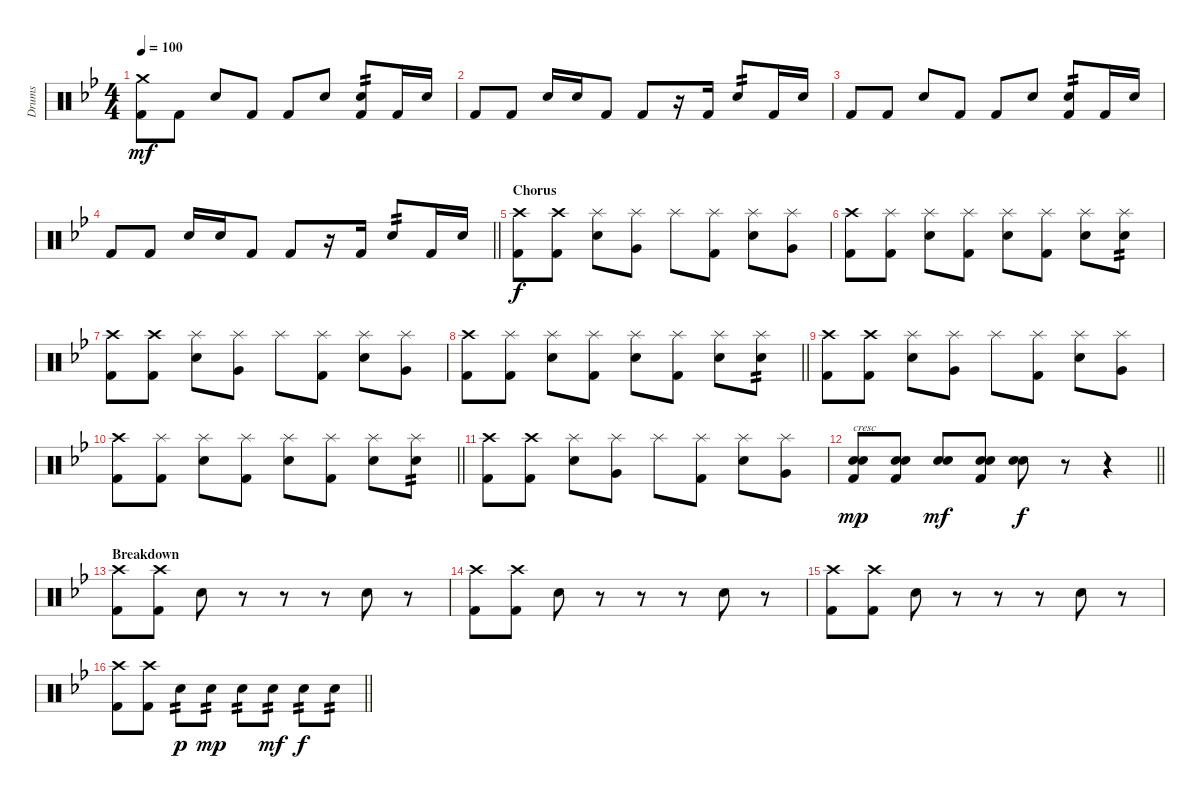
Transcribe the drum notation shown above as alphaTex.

\track ("Drums" "Drums") {instrument percussion}
\staff {score}
\articulation defaults
\ts (4 4)
\section ("" "")
\tempo 100
\clef neutral
\ks gminor
("Crash medium (hit)" "Kick (hit) 2").8{dy mf} "Kick (hit) 2".8 "Snare (hit) 2".8 "Kick (hit) 2".8 "Kick (hit) 2".8 "Snare (hit) 2".8 ("Snare (hit) 2" "Kick (hit) 2").8{tp 2} "Kick (hit) 2".16 "Snare (hit) 2".16 |
"Kick (hit) 2".8 "Kick (hit) 2".8 "Snare (hit) 2".16 "Snare (hit) 2".16 "Kick (hit) 2".8 "Kick (hit) 2".8 r.16 "Kick (hit) 2".16 "Snare (hit) 2".8{tp 2} "Kick (hit) 2".16 "Snare (hit) 2".16 |
"Kick (hit) 2".8 "Kick (hit) 2".8 "Snare (hit) 2".8 "Kick (hit) 2".8 "Kick (hit) 2".8 "Snare (hit) 2".8 ("Snare (hit) 2" "Kick (hit) 2").8{tp 2} "Kick (hit) 2".16 "Snare (hit) 2".16 |
\barLineRight lightlight "Kick (hit) 2".8 "Kick (hit) 2".8 "Snare (hit) 2".16 "Snare (hit) 2".16 "Kick (hit) 2".8 "Kick (hit) 2".8
r.16 "Kick (hit) 2".16 "Snare (hit) 2".8{tp 2} "Kick (hit) 2".16 "Snare (hit) 2".16 |
\section ("" "Chorus")
("Crash high (hit)" "Kick (hit) 2").8{dy f} ("Crash high (hit)" "Kick (hit) 2").8 ("Splash (hit)" "Snare (hit) 2").8 ("Splash (hit)" "Very Low Tom (hit)").8 "Splash (hit)".8 ("Splash (hit)" "Kick (hit) 2").8 ("Splash (hit)" "Snare (hit) 2").8 ("Splash (hit)" "Very Low Tom (hit)").8 |
("Crash high (hit)" "Kick (hit) 2").8 ("Splash (hit)" "Kick (hit) 2").8 ("Splash (hit)" "Snare (hit) 2").8 ("Splash (hit)" "Kick (hit) 2").8 ("Splash (hit)" "Snare (hit) 2").8 ("Splash (hit)" "Kick (hit) 2").8 ("Splash (hit)" "Snare (hit) 2").8 ("Splash (hit)" "Snare (hit) 2").8{tp 2} |
("Crash high (hit)" "Kick (hit) 2").8 ("Crash high (hit)" "Kick (hit) 2").8 ("Splash (hit)" "Snare (hit) 2").8 ("Splash (hit)" "Very Low Tom (hit)").8 "Splash (hit)".8 ("Splash (hit)" "Kick (hit) 2").8 ("Splash (hit)" "Snare (hit) 2").8 ("Splash (hit)" "Very Low Tom (hit)").8 |
\barLineRight lightlight
("Crash high (hit)" "Kick (hit) 2").8 ("Splash (hit)" "Kick (hit) 2").8 ("Splash (hit)" "Snare (hit) 2").8 ("Splash (hit)" "Kick (hit) 2").8 ("Splash (hit)" "Snare (hit) 2").8 ("Splash (hit)" "Kick (hit) 2").8 ("Splash (hit)" "Snare (hit) 2").8 ("Splash (hit)" "Snare (hit) 2").8{tp 2} |
\section ("" "")
("Crash high (hit)" "Kick (hit) 2").8 ("Crash high (hit)" "Kick (hit) 2").8 ("Splash (hit)" "Snare (hit) 2").8 ("Splash (hit)" "Very Low Tom (hit)").8 "Splash (hit)".8 ("Splash (hit)" "Kick (hit) 2").8 ("Splash (hit)" "Snare (hit) 2").8 ("Splash (hit)" "Very Low Tom (hit)").8 |
\barLineRight lightlight
("Crash high (hit)" "Kick (hit) 2").8 ("Splash (hit)" "Kick (hit) 2").8 ("Splash (hit)" "Snare (hit) 2").8 ("Splash (hit)" "Kick (hit) 2").8 ("Splash (hit)" "Snare (hit) 2").8 ("Splash (hit)" "Kick (hit) 2").8 ("Splash (hit)" "Snare (hit) 2").8 ("Splash (hit)" "Snare (hit) 2").8{tp 2} |
("Crash high (hit)" "Kick (hit) 2").8 ("Crash high (hit)" "Kick (hit) 2").8 ("Splash (hit)" "Snare (hit) 2").8 ("Splash (hit)" "Very Low Tom (hit)").8 "Splash (hit)".8 ("Splash (hit)" "Kick (hit) 2").8 ("Splash (hit)" "Snare (hit) 2").8 ("Splash (hit)" "Very Low Tom (hit)").8 |
\barLineRight lightlight
("Electric Snare (hit)" "Snare (hit) 2" "Kick (hit) 2").8{txt "cresc" dy mp} ("Electric Snare (hit)" "Snare (hit) 2" "Kick (hit) 2").8 ("Electric Snare (hit)" "Snare (hit) 2").8{dy mf} ("Electric Snare (hit)" "Snare (hit) 2" "Kick (hit) 2").8 ("Electric Snare (hit)" "Snare (hit) 2").8{dy f} r.8 r.4 |
\section ("" "Breakdown")
("Crash high (hit)" "Kick (hit) 2").8 ("Crash high (hit)" "Kick (hit) 2").8 "Snare (hit) 2".8 r.8 r.8 r.8 "Snare (hit) 2".8 r.8 |
("Crash high (hit)" "Kick (hit) 2").8 ("Crash high (hit)" "Kick (hit) 2").8 "Snare (hit) 2".8 r.8 r.8 r.8 "Snare (hit) 2".8 r.8 |
("Crash high (hit)" "Kick (hit) 2").8 ("Crash high (hit)" "Kick (hit) 2").8 "Snare (hit) 2".8 r.8 r.8 r.8 "Snare (hit) 2".8 r.8 |
\barLineRight lightlight
("Crash high (hit)" "Kick (hit) 2").8 ("Crash high (hit)" "Kick (hit) 2").8 "Snare (hit) 2".8{tp 2 dy p} "Snare (hit) 2".8{tp 2 dy mp} "Snare (hit) 2".8{tp 2} "Snare (hit) 2".8{tp 2 dy mf} "Snare (hit) 2".8{tp 2 dy f} "Snare (hit) 2".8{tp 2}
